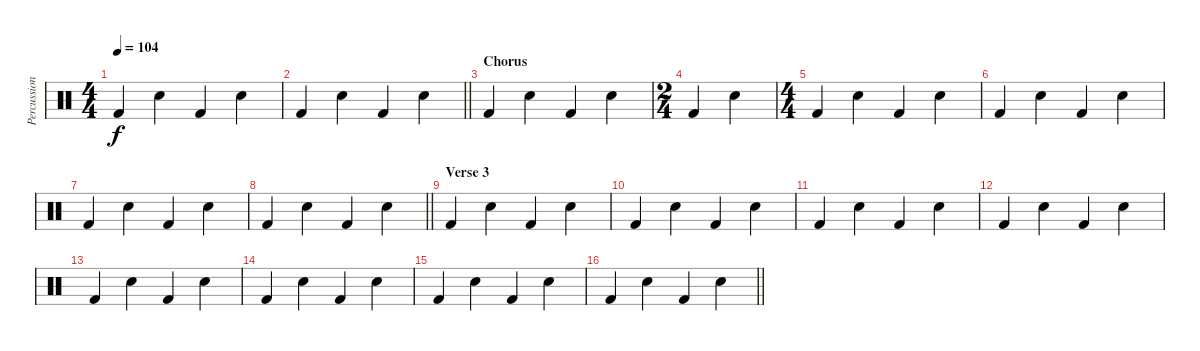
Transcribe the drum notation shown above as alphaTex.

\track ("Percussion" "Percussion") {instrument percussion}
\staff {score}
\articulation defaults
\ts (4 4)
\tempo 104
\clef neutral
\ks c "Kick (hit) 2".4{dy f} "Snare (hit) 2".4 "Kick (hit) 2".4 "Snare (hit) 2".4
|
\barLineRight lightlight "Kick (hit) 2".4 "Snare (hit) 2".4 "Kick (hit) 2".4 "Snare (hit) 2".4
|
\section ("" "Chorus")
"Kick (hit) 2".4 "Snare (hit) 2".4 "Kick (hit) 2".4 "Snare (hit) 2".4 |
\ts (2 4)
"Kick (hit) 2".4 "Snare (hit) 2".4 |
\ts (4 4)
"Kick (hit) 2".4 "Snare (hit) 2".4 "Kick (hit) 2".4 "Snare (hit) 2".4 |
"Kick (hit) 2".4 "Snare (hit) 2".4 "Kick (hit) 2".4 "Snare (hit) 2".4 |
"Kick (hit) 2".4 "Snare (hit) 2".4 "Kick (hit) 2".4 "Snare (hit) 2".4 |
\barLineRight lightlight "Kick (hit) 2".4 "Snare (hit) 2".4 "Kick (hit) 2".4 "Snare (hit) 2".4
|
\section ("" "Verse 3")
"Kick (hit) 2".4 "Snare (hit) 2".4 "Kick (hit) 2".4 "Snare (hit) 2".4 |
"Kick (hit) 2".4 "Snare (hit) 2".4 "Kick (hit) 2".4 "Snare (hit) 2".4 |
"Kick (hit) 2".4 "Snare (hit) 2".4 "Kick (hit) 2".4 "Snare (hit) 2".4 |
"Kick (hit) 2".4 "Snare (hit) 2".4 "Kick (hit) 2".4 "Snare (hit) 2".4 |
"Kick (hit) 2".4 "Snare (hit) 2".4 "Kick (hit) 2".4 "Snare (hit) 2".4 |
"Kick (hit) 2".4 "Snare (hit) 2".4 "Kick (hit) 2".4 "Snare (hit) 2".4 |
"Kick (hit) 2".4 "Snare (hit) 2".4 "Kick (hit) 2".4 "Snare (hit) 2".4 |
\barLineRight lightlight "Kick (hit) 2".4 "Snare (hit) 2".4 "Kick (hit) 2".4 "Snare (hit) 2".4
